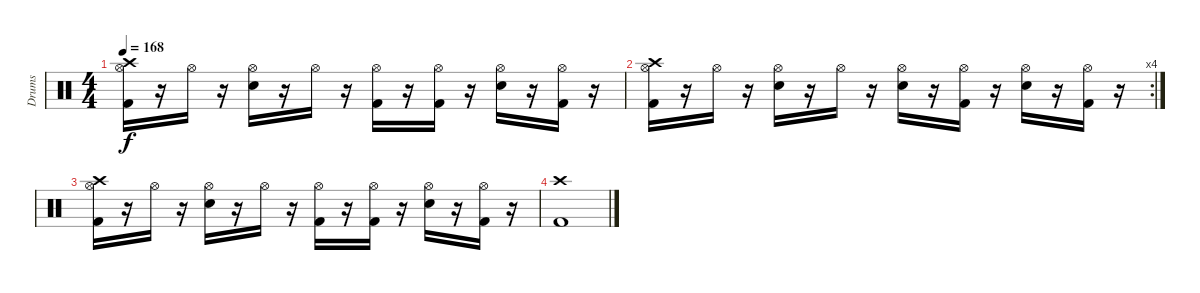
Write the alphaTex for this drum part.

\track ("Drums" "Drums") {instrument percussion}
\staff {score}
\articulation defaults
\ts (4 4)
\tempo 168
\clef neutral
\ks c
("Hi-Hat (open)" "Kick (hit) 2" "Crash high (hit)").16{dy f} r.16 "Hi-Hat (open)".16 r.16 ("Hi-Hat (open)" "Snare (hit) 2").16 r.16 "Hi-Hat (open)".16 r.16 ("Hi-Hat (open)" "Kick (hit) 2").16 r.16 ("Hi-Hat (open)" "Kick (hit) 2").16 r.16 ("Hi-Hat (open)" "Snare (hit) 2").16 r.16 ("Hi-Hat (open)" "Kick (hit) 2").16 r.16 |
\rc 4
("Hi-Hat (open)" "Kick (hit) 2" "Crash high (hit)").16 r.16 "Hi-Hat (open)".16 r.16 ("Hi-Hat (open)" "Snare (hit) 2").16 r.16 "Hi-Hat (open)".16 r.16 ("Hi-Hat (open)" "Snare (hit) 2").16 r.16 ("Hi-Hat (open)" "Kick (hit) 2").16 r.16 ("Hi-Hat (open)" "Snare (hit) 2").16 r.16 ("Hi-Hat (open)" "Kick (hit) 2").16 r.16 |
("Hi-Hat (open)" "Kick (hit) 2" "Crash high (hit)").16 r.16 "Hi-Hat (open)".16 r.16 ("Hi-Hat (open)" "Snare (hit) 2").16 r.16 "Hi-Hat (open)".16 r.16 ("Hi-Hat (open)" "Kick (hit) 2").16 r.16 ("Hi-Hat (open)" "Kick (hit) 2").16 r.16 ("Hi-Hat (open)" "Snare (hit) 2").16 r.16 ("Hi-Hat (open)" "Kick (hit) 2").16 r.16 |
("Kick (hit) 2" "Crash high (hit)").1
